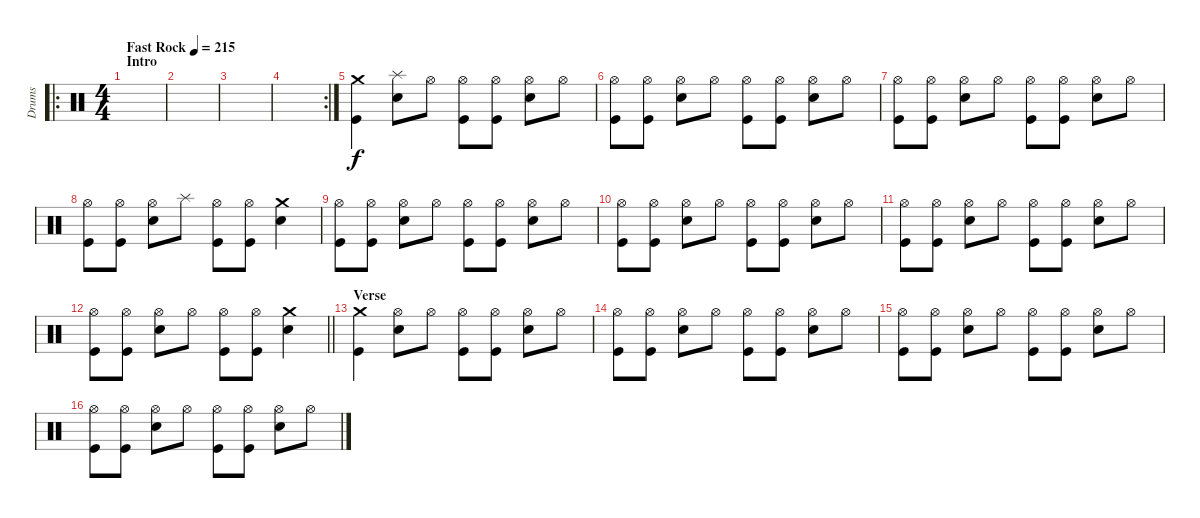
\track ("Drums" "Drums") {instrument percussion}
\staff {score}
\articulation defaults
\ro
\ts (4 4)
\section ("" "Intro")
\tempo (215 "Fast Rock")
\clef neutral
\ks c
|
|
|
\rc 2
|
("Kick (hit)" "Crash medium (hit)").4 ("Snare (hit) 2" "Splash (hit)").8 "Hi-Hat (open)".8 ("Kick (hit)" "Hi-Hat (open)").8 ("Kick (hit)" "Hi-Hat (open)").8 ("Snare (hit) 2" "Hi-Hat (open)").8 "Hi-Hat (open)".8 |
("Kick (hit)" "Hi-Hat (open)").8 ("Kick (hit)" "Hi-Hat (open)").8 ("Snare (hit) 2" "Hi-Hat (open)").8 "Hi-Hat (open)".8 ("Kick (hit)" "Hi-Hat (open)").8 ("Kick (hit)" "Hi-Hat (open)").8 ("Snare (hit) 2" "Hi-Hat (open)").8 "Hi-Hat (open)".8 |
("Kick (hit)" "Hi-Hat (open)").8 ("Kick (hit)" "Hi-Hat (open)").8 ("Snare (hit) 2" "Hi-Hat (open)").8 "Hi-Hat (open)".8 ("Kick (hit)" "Hi-Hat (open)").8 ("Kick (hit)" "Hi-Hat (open)").8 ("Snare (hit) 2" "Hi-Hat (open)").8 "Hi-Hat (open)".8 |
("Kick (hit)" "Hi-Hat (open)").8 ("Kick (hit)" "Hi-Hat (open)").8 ("Snare (hit) 2" "Hi-Hat (open)").8 "Splash (hit)".8 ("Kick (hit)" "Hi-Hat (open)").8 ("Kick (hit)" "Hi-Hat (open)").8 ("Snare (hit) 2" "Crash medium (hit)").4 |
("Kick (hit)" "Hi-Hat (open)").8 ("Kick (hit)" "Hi-Hat (open)").8 ("Snare (hit) 2" "Hi-Hat (open)").8 "Hi-Hat (open)".8 ("Kick (hit)" "Hi-Hat (open)").8 ("Kick (hit)" "Hi-Hat (open)").8 ("Snare (hit) 2" "Hi-Hat (open)").8 "Hi-Hat (open)".8 |
("Kick (hit)" "Hi-Hat (open)").8 ("Kick (hit)" "Hi-Hat (open)").8 ("Snare (hit) 2" "Hi-Hat (open)").8 "Hi-Hat (open)".8 ("Kick (hit)" "Hi-Hat (open)").8 ("Kick (hit)" "Hi-Hat (open)").8 ("Snare (hit) 2" "Hi-Hat (open)").8 "Hi-Hat (open)".8 |
("Kick (hit)" "Hi-Hat (open)").8 ("Kick (hit)" "Hi-Hat (open)").8 ("Snare (hit) 2" "Hi-Hat (open)").8 "Hi-Hat (open)".8 ("Kick (hit)" "Hi-Hat (open)").8 ("Kick (hit)" "Hi-Hat (open)").8 ("Snare (hit) 2" "Hi-Hat (open)").8 "Hi-Hat (open)".8 |
\barLineRight lightlight
("Kick (hit)" "Hi-Hat (open)").8 ("Kick (hit)" "Hi-Hat (open)").8 ("Snare (hit) 2" "Hi-Hat (open)").8 "Hi-Hat (open)".8 ("Kick (hit)" "Hi-Hat (open)").8 ("Kick (hit)" "Hi-Hat (open)").8 ("Snare (hit) 2" "Crash medium (hit)").4 |
\section ("" "Verse")
("Kick (hit)" "Crash medium (hit)").4 ("Snare (hit) 2" "Hi-Hat (open)").8 "Hi-Hat (open)".8 ("Kick (hit)" "Hi-Hat (open)").8 ("Kick (hit)" "Hi-Hat (open)").8 ("Snare (hit) 2" "Hi-Hat (open)").8 "Hi-Hat (open)".8 |
("Kick (hit)" "Hi-Hat (open)").8 ("Kick (hit)" "Hi-Hat (open)").8 ("Snare (hit) 2" "Hi-Hat (open)").8 "Hi-Hat (open)".8 ("Kick (hit)" "Hi-Hat (open)").8 ("Kick (hit)" "Hi-Hat (open)").8 ("Snare (hit) 2" "Hi-Hat (open)").8 "Hi-Hat (open)".8 |
("Kick (hit)" "Hi-Hat (open)").8 ("Kick (hit)" "Hi-Hat (open)").8 ("Snare (hit) 2" "Hi-Hat (open)").8 "Hi-Hat (open)".8 ("Kick (hit)" "Hi-Hat (open)").8 ("Kick (hit)" "Hi-Hat (open)").8 ("Snare (hit) 2" "Hi-Hat (open)").8 "Hi-Hat (open)".8 |
("Kick (hit)" "Hi-Hat (open)").8 ("Kick (hit)" "Hi-Hat (open)").8 ("Snare (hit) 2" "Hi-Hat (open)").8 "Hi-Hat (open)".8 ("Kick (hit)" "Hi-Hat (open)").8 ("Kick (hit)" "Hi-Hat (open)").8 ("Snare (hit) 2" "Hi-Hat (open)").8 "Hi-Hat (open)".8
